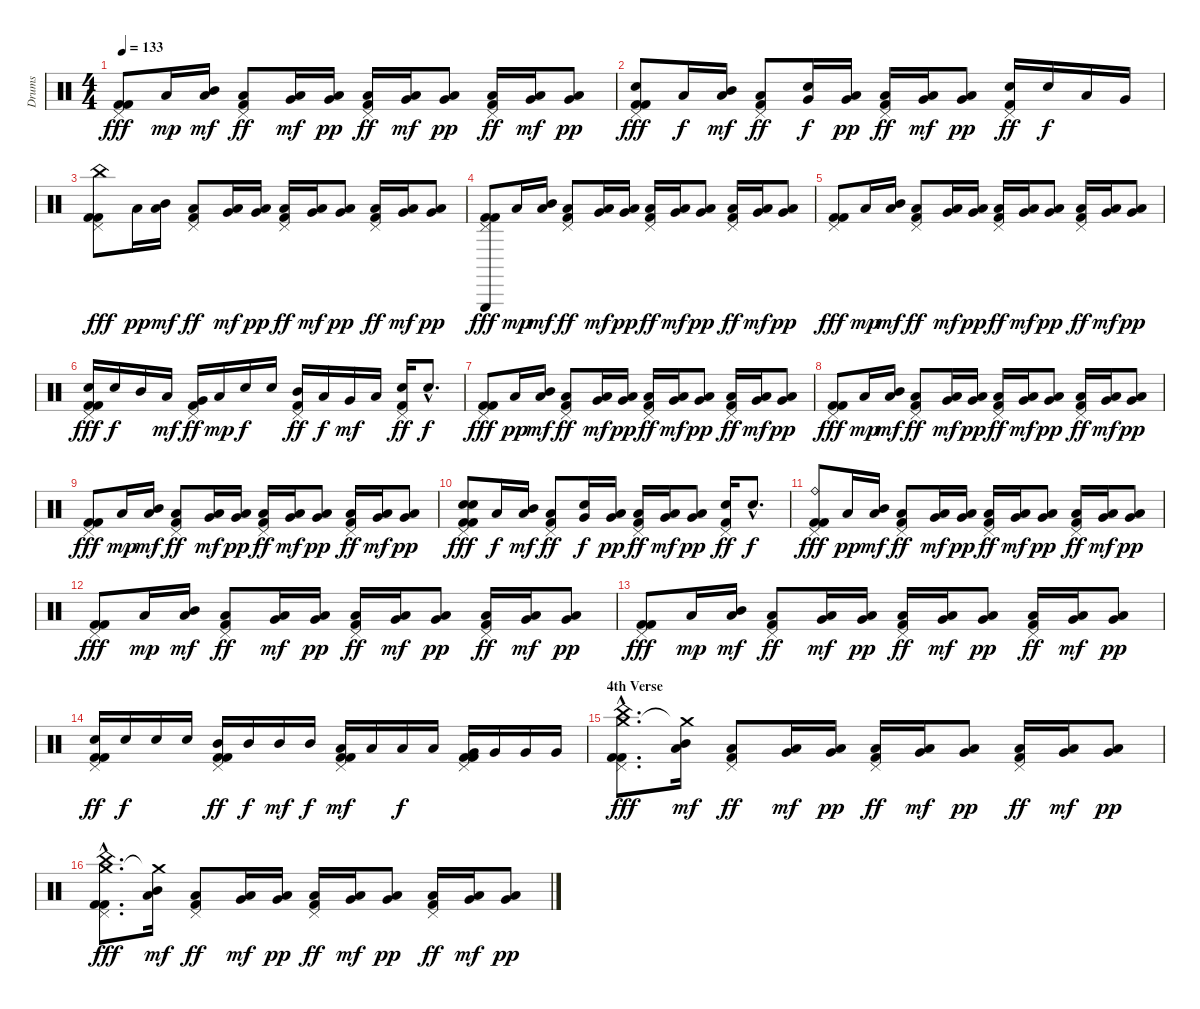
\track ("Drums" "Drums") {instrument percussion}
\staff {score}
\articulation defaults
\ts (4 4)
\tempo 133
\clef neutral
\ks c
("Pedal Hi-Hat (hit)" "Kick (hit) 2" "Kick (hit) 2").8{dy fff} "Low Tom (hit)".16{dy mp} ("Mid Tom (hit)" "Low Tom (hit)").16{dy mf} ("Pedal Hi-Hat (hit)" "Low Tom (hit)" "Kick (hit) 2").8{dy ff} ("Low Tom (hit)" "Very Low Tom (hit)").16{dy mf} ("Low Tom (hit)" "Very Low Tom (hit)").16{dy pp} ("Pedal Hi-Hat (hit)" "Low Tom (hit)" "Kick (hit) 2").16{dy ff} ("Low Tom (hit)" "Very Low Tom (hit)").16{dy mf} ("Low Tom (hit)" "Very Low Tom (hit)").8{dy pp} ("Pedal Hi-Hat (hit)" "Low Tom (hit)" "Kick (hit) 2").16{dy ff} ("Low Tom (hit)" "Very Low Tom (hit)").16{dy mf} ("Low Tom (hit)" "Very Low Tom (hit)").8{dy pp} |
("Pedal Hi-Hat (hit)" "Electric Snare (hit)" "Kick (hit) 2" "Kick (hit) 2").8{dy fff} "Low Tom (hit)".16{dy f} ("Mid Tom (hit)" "Low Tom (hit)").16{dy mf} ("Pedal Hi-Hat (hit)" "Low Tom (hit)" "Kick (hit) 2").8{dy ff} ("Electric Snare (hit)" "Very Low Tom (hit)").16{dy f} ("Low Tom (hit)" "Very Low Tom (hit)").16{dy pp} ("Pedal Hi-Hat (hit)" "Low Tom (hit)" "Kick (hit) 2").16{dy ff} ("Low Tom (hit)" "Very Low Tom (hit)").16{dy mf} ("Low Tom (hit)" "Very Low Tom (hit)").8{dy pp} ("Pedal Hi-Hat (hit)" "Electric Snare (hit)" "Kick (hit) 2").16{dy ff} "Electric Snare (hit)".16{dy f} "Low Tom (hit)".16 "Very Low Tom (hit)".16 |
("China (hit)" "Pedal Hi-Hat (hit)" "Kick (hit) 2" "Kick (hit) 2").8{dy fff} "Low Tom (hit)".16{dy pp} ("Mid Tom (hit)" "Low Tom (hit)").16{dy mf} ("Pedal Hi-Hat (hit)" "Low Tom (hit)" "Kick (hit) 2").8{dy ff} ("Low Tom (hit)" "Very Low Tom (hit)").16{dy mf} ("Low Tom (hit)" "Very Low Tom (hit)").16{dy pp} ("Pedal Hi-Hat (hit)" "Low Tom (hit)" "Kick (hit) 2").16{dy ff} ("Low Tom (hit)" "Very Low Tom (hit)").16{dy mf} ("Low Tom (hit)" "Very Low Tom (hit)").8{dy pp} ("Pedal Hi-Hat (hit)" "Low Tom (hit)" "Kick (hit) 2").16{dy ff} ("Low Tom (hit)" "Very Low Tom (hit)").16{dy mf} ("Low Tom (hit)" "Very Low Tom (hit)").8{dy pp} |
("Pedal Hi-Hat (hit)" "Triangle (hit)" "Kick (hit) 2" "Kick (hit) 2").8{dy fff} "Low Tom (hit)".16{dy mp} ("Mid Tom (hit)" "Low Tom (hit)").16{dy mf} ("Pedal Hi-Hat (hit)" "Low Tom (hit)" "Kick (hit) 2").8{dy ff} ("Low Tom (hit)" "Very Low Tom (hit)").16{dy mf} ("Low Tom (hit)" "Very Low Tom (hit)").16{dy pp} ("Pedal Hi-Hat (hit)" "Low Tom (hit)" "Kick (hit) 2").16{dy ff} ("Low Tom (hit)" "Very Low Tom (hit)").16{dy mf} ("Low Tom (hit)" "Very Low Tom (hit)").8{dy pp} ("Pedal Hi-Hat (hit)" "Low Tom (hit)" "Kick (hit) 2").16{dy ff} ("Low Tom (hit)" "Very Low Tom (hit)").16{dy mf} ("Low Tom (hit)" "Very Low Tom (hit)").8{dy pp} |
("Pedal Hi-Hat (hit)" "Kick (hit) 2" "Kick (hit) 2").8{dy fff} "Low Tom (hit)".16{dy mp} ("Mid Tom (hit)" "Low Tom (hit)").16{dy mf} ("Pedal Hi-Hat (hit)" "Low Tom (hit)" "Kick (hit) 2").8{dy ff} ("Low Tom (hit)" "Very Low Tom (hit)").16{dy mf} ("Low Tom (hit)" "Very Low Tom (hit)").16{dy pp} ("Pedal Hi-Hat (hit)" "Low Tom (hit)" "Kick (hit) 2").16{dy ff} ("Low Tom (hit)" "Very Low Tom (hit)").16{dy mf} ("Low Tom (hit)" "Very Low Tom (hit)").8{dy pp} ("Pedal Hi-Hat (hit)" "Low Tom (hit)" "Kick (hit) 2").16{dy ff} ("Low Tom (hit)" "Very Low Tom (hit)").16{dy mf} ("Low Tom (hit)" "Very Low Tom (hit)").8{dy pp} |
("Pedal Hi-Hat (hit)" "Electric Snare (hit)" "Kick (hit) 2" "Kick (hit) 2").16{dy fff} "Electric Snare (hit)".16{dy f} "Mid Tom (hit)".16 "Low Tom (hit)".16{dy mf} ("Pedal Hi-Hat (hit)" "Very Low Tom (hit)" "Kick (hit) 2").16{dy ff} "Low Floor Tom (hit)".16{dy mp} "Electric Snare (hit)".16{dy f} "Electric Snare (hit)".16 ("Pedal Hi-Hat (hit)" "Mid Tom (hit)" "Kick (hit) 2").16{dy ff} "Low Tom (hit)".16{dy f} "Very Low Tom (hit)".16{dy mf} "Low Floor Tom (hit)".16 ("Pedal Hi-Hat (hit)" "Electric Snare (hit)" "Kick (hit) 2").16{dy ff} "Electric Snare (hit)"{hac}.8{d dy f} |
("Pedal Hi-Hat (hit)" "Kick (hit) 2" "Kick (hit) 2").8{dy fff} "Low Tom (hit)".16{dy pp} ("Mid Tom (hit)" "Low Tom (hit)").16{dy mf} ("Pedal Hi-Hat (hit)" "Low Tom (hit)" "Kick (hit) 2").8{dy ff} ("Low Tom (hit)" "Very Low Tom (hit)").16{dy mf} ("Low Tom (hit)" "Very Low Tom (hit)").16{dy pp} ("Pedal Hi-Hat (hit)" "Low Tom (hit)" "Kick (hit) 2").16{dy ff} ("Low Tom (hit)" "Very Low Tom (hit)").16{dy mf} ("Low Tom (hit)" "Very Low Tom (hit)").8{dy pp} ("Pedal Hi-Hat (hit)" "Low Tom (hit)" "Kick (hit) 2").16{dy ff} ("Low Tom (hit)" "Very Low Tom (hit)").16{dy mf} ("Low Tom (hit)" "Very Low Tom (hit)").8{dy pp} |
("Pedal Hi-Hat (hit)" "Kick (hit) 2" "Kick (hit) 2").8{dy fff} "Low Tom (hit)".16{dy mp} ("Mid Tom (hit)" "Low Tom (hit)").16{dy mf} ("Pedal Hi-Hat (hit)" "Low Tom (hit)" "Kick (hit) 2").8{dy ff} ("Low Tom (hit)" "Very Low Tom (hit)").16{dy mf} ("Low Tom (hit)" "Very Low Tom (hit)").16{dy pp} ("Pedal Hi-Hat (hit)" "Low Tom (hit)" "Kick (hit) 2").16{dy ff} ("Low Tom (hit)" "Very Low Tom (hit)").16{dy mf} ("Low Tom (hit)" "Very Low Tom (hit)").8{dy pp} ("Pedal Hi-Hat (hit)" "Low Tom (hit)" "Kick (hit) 2").16{dy ff} ("Low Tom (hit)" "Very Low Tom (hit)").16{dy mf} ("Low Tom (hit)" "Very Low Tom (hit)").8{dy pp} |
("Pedal Hi-Hat (hit)" "Kick (hit) 2" "Kick (hit) 2").8{dy fff} "Low Tom (hit)".16{dy mp} ("Mid Tom (hit)" "Low Tom (hit)").16{dy mf} ("Pedal Hi-Hat (hit)" "Low Tom (hit)" "Kick (hit) 2").8{dy ff} ("Low Tom (hit)" "Very Low Tom (hit)").16{dy mf} ("Low Tom (hit)" "Very Low Tom (hit)").16{dy pp} ("Pedal Hi-Hat (hit)" "Low Tom (hit)" "Kick (hit) 2").16{dy ff} ("Low Tom (hit)" "Very Low Tom (hit)").16{dy mf} ("Low Tom (hit)" "Very Low Tom (hit)").8{dy pp} ("Pedal Hi-Hat (hit)" "Low Tom (hit)" "Kick (hit) 2").16{dy ff} ("Low Tom (hit)" "Very Low Tom (hit)").16{dy mf} ("Low Tom (hit)" "Very Low Tom (hit)").8{dy pp} |
("Pedal Hi-Hat (hit)" "Electric Snare (hit)" "Electric Snare (hit)" "Kick (hit) 2" "Kick (hit) 2").8{dy fff} "Low Tom (hit)".16{dy f} ("Mid Tom (hit)" "Low Tom (hit)").16{dy mf} ("Pedal Hi-Hat (hit)" "Low Tom (hit)" "Kick (hit) 2").8{dy ff} ("Electric Snare (hit)" "Very Low Tom (hit)").16{dy f} ("Low Tom (hit)" "Very Low Tom (hit)").16{dy pp} ("Pedal Hi-Hat (hit)" "Low Tom (hit)" "Kick (hit) 2").16{dy ff} ("Low Tom (hit)" "Very Low Tom (hit)").16{dy mf} ("Low Tom (hit)" "Very Low Tom (hit)").8{dy pp} ("Pedal Hi-Hat (hit)" "Electric Snare (hit)" "Kick (hit) 2").16{dy ff} "Electric Snare (hit)"{hac}.8{d dy f} |
("Pedal Hi-Hat (hit)" "Ride (bell)" "Kick (hit) 2" "Kick (hit) 2").8{dy fff} "Low Tom (hit)".16{dy pp} ("Mid Tom (hit)" "Low Tom (hit)").16{dy mf} ("Pedal Hi-Hat (hit)" "Low Tom (hit)" "Kick (hit) 2").8{dy ff} ("Low Tom (hit)" "Very Low Tom (hit)").16{dy mf} ("Low Tom (hit)" "Very Low Tom (hit)").16{dy pp} ("Pedal Hi-Hat (hit)" "Low Tom (hit)" "Kick (hit) 2").16{dy ff} ("Low Tom (hit)" "Very Low Tom (hit)").16{dy mf} ("Low Tom (hit)" "Very Low Tom (hit)").8{dy pp} ("Pedal Hi-Hat (hit)" "Low Tom (hit)" "Kick (hit) 2").16{dy ff} ("Low Tom (hit)" "Very Low Tom (hit)").16{dy mf} ("Low Tom (hit)" "Very Low Tom (hit)").8{dy pp} |
("Pedal Hi-Hat (hit)" "Kick (hit) 2" "Kick (hit) 2").8{dy fff} "Low Tom (hit)".16{dy mp} ("Mid Tom (hit)" "Low Tom (hit)").16{dy mf} ("Pedal Hi-Hat (hit)" "Low Tom (hit)" "Kick (hit) 2").8{dy ff} ("Low Tom (hit)" "Very Low Tom (hit)").16{dy mf} ("Low Tom (hit)" "Very Low Tom (hit)").16{dy pp} ("Pedal Hi-Hat (hit)" "Low Tom (hit)" "Kick (hit) 2").16{dy ff} ("Low Tom (hit)" "Very Low Tom (hit)").16{dy mf} ("Low Tom (hit)" "Very Low Tom (hit)").8{dy pp} ("Pedal Hi-Hat (hit)" "Low Tom (hit)" "Kick (hit) 2").16{dy ff} ("Low Tom (hit)" "Very Low Tom (hit)").16{dy mf} ("Low Tom (hit)" "Very Low Tom (hit)").8{dy pp} |
("Pedal Hi-Hat (hit)" "Kick (hit) 2" "Kick (hit) 2").8{dy fff} "Low Tom (hit)".16{dy mp} ("Mid Tom (hit)" "Low Tom (hit)").16{dy mf} ("Pedal Hi-Hat (hit)" "Low Tom (hit)" "Kick (hit) 2").8{dy ff} ("Low Tom (hit)" "Very Low Tom (hit)").16{dy mf} ("Low Tom (hit)" "Very Low Tom (hit)").16{dy pp} ("Pedal Hi-Hat (hit)" "Low Tom (hit)" "Kick (hit) 2").16{dy ff} ("Low Tom (hit)" "Very Low Tom (hit)").16{dy mf} ("Low Tom (hit)" "Very Low Tom (hit)").8{dy pp} ("Pedal Hi-Hat (hit)" "Low Tom (hit)" "Kick (hit) 2").16{dy ff} ("Low Tom (hit)" "Very Low Tom (hit)").16{dy mf} ("Low Tom (hit)" "Very Low Tom (hit)").8{dy pp} |
("Pedal Hi-Hat (hit)" "Electric Snare (hit)" "Kick (hit) 2" "Kick (hit) 2").16{dy ff} "Electric Snare (hit)".16{dy f} "Electric Snare (hit)".16 "Electric Snare (hit)".16 ("Pedal Hi-Hat (hit)" "Mid Tom (hit)" "Kick (hit) 2" "Kick (hit) 2").16{dy ff} "Mid Tom (hit)".16{dy f} "Mid Tom (hit)".16{dy mf} "Mid Tom (hit)".16{dy f} ("Pedal Hi-Hat (hit)" "Low Tom (hit)" "Kick (hit) 2" "Kick (hit) 2").16{dy mf} "Low Tom (hit)".16 "Low Tom (hit)".16{dy f} "Low Tom (hit)".16 ("Pedal Hi-Hat (hit)" "Very Low Tom (hit)" "Kick (hit) 2" "Kick (hit) 2").16 "Very Low Tom (hit)".16 "Very Low Tom (hit)".16 "Very Low Tom (hit)".16 |
\section ("" "4th Verse")
("Crash medium (hit)"{hac} "China (hit)"{hac} "Pedal Hi-Hat (hit)"{hac} "Kick (hit) 2"{hac} "Kick (hit) 2"{hac}).8{d dy fff} ("Crash medium (hit)"{t} "Mid Tom (hit)" "Low Tom (hit)").16{dy mf} ("Pedal Hi-Hat (hit)" "Low Tom (hit)" "Kick (hit) 2").8{dy ff} ("Low Tom (hit)" "Very Low Tom (hit)").16{dy mf} ("Low Tom (hit)" "Very Low Tom (hit)").16{dy pp} ("Pedal Hi-Hat (hit)" "Low Tom (hit)" "Kick (hit) 2").16{dy ff} ("Low Tom (hit)" "Very Low Tom (hit)").16{dy mf} ("Low Tom (hit)" "Very Low Tom (hit)").8{dy pp} ("Pedal Hi-Hat (hit)" "Low Tom (hit)" "Kick (hit) 2").16{dy ff} ("Low Tom (hit)" "Very Low Tom (hit)").16{dy mf} ("Low Tom (hit)" "Very Low Tom (hit)").8{dy pp} |
("Crash medium (hit)"{hac} "China (hit)"{hac} "Pedal Hi-Hat (hit)"{hac} "Kick (hit) 2"{hac} "Kick (hit) 2"{hac}).8{d dy fff} ("Crash medium (hit)"{t} "Mid Tom (hit)" "Low Tom (hit)").16{dy mf} ("Pedal Hi-Hat (hit)" "Low Tom (hit)" "Kick (hit) 2").8{dy ff} ("Low Tom (hit)" "Very Low Tom (hit)").16{dy mf} ("Low Tom (hit)" "Very Low Tom (hit)").16{dy pp} ("Pedal Hi-Hat (hit)" "Low Tom (hit)" "Kick (hit) 2").16{dy ff} ("Low Tom (hit)" "Very Low Tom (hit)").16{dy mf} ("Low Tom (hit)" "Very Low Tom (hit)").8{dy pp} ("Pedal Hi-Hat (hit)" "Low Tom (hit)" "Kick (hit) 2").16{dy ff} ("Low Tom (hit)" "Very Low Tom (hit)").16{dy mf} ("Low Tom (hit)" "Very Low Tom (hit)").8{dy pp}
